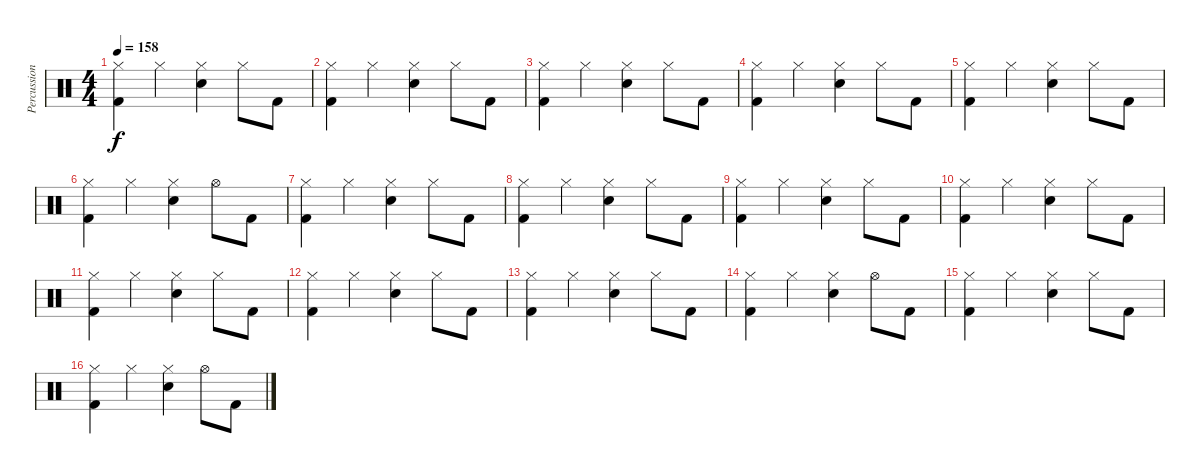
\track ("Percussions" "Percussion") {instrument percussion}
\staff {score}
\articulation defaults
\ts (4 4)
\tempo 158
\clef neutral
\ks c
("Hi-Hat (closed)" "Kick (hit) 2").4{dy f} "Hi-Hat (closed)".4 ("Hi-Hat (closed)" "Snare (hit) 2").4 "Hi-Hat (closed)".8 "Kick (hit) 2".8 |
("Hi-Hat (closed)" "Kick (hit) 2").4 "Hi-Hat (closed)".4 ("Hi-Hat (closed)" "Snare (hit) 2").4 "Hi-Hat (closed)".8 "Kick (hit) 2".8 |
("Hi-Hat (closed)" "Kick (hit) 2").4 "Hi-Hat (closed)".4 ("Hi-Hat (closed)" "Snare (hit) 2").4 "Hi-Hat (closed)".8 "Kick (hit) 2".8 |
("Hi-Hat (closed)" "Kick (hit) 2").4 "Hi-Hat (closed)".4 ("Hi-Hat (closed)" "Snare (hit) 2").4 "Hi-Hat (closed)".8 "Kick (hit) 2".8 |
("Hi-Hat (closed)" "Kick (hit) 2").4 "Hi-Hat (closed)".4 ("Hi-Hat (closed)" "Snare (hit) 2").4 "Hi-Hat (closed)".8 "Kick (hit) 2".8 |
("Hi-Hat (closed)" "Kick (hit) 2").4 "Hi-Hat (closed)".4 ("Hi-Hat (closed)" "Snare (hit) 2").4 "Hi-Hat (open)".8 "Kick (hit) 2".8 |
("Hi-Hat (closed)" "Kick (hit) 2").4 "Hi-Hat (closed)".4 ("Hi-Hat (closed)" "Snare (hit) 2").4 "Hi-Hat (closed)".8 "Kick (hit) 2".8 |
("Hi-Hat (closed)" "Kick (hit) 2").4 "Hi-Hat (closed)".4 ("Hi-Hat (closed)" "Snare (hit) 2").4 "Hi-Hat (closed)".8 "Kick (hit) 2".8 |
("Hi-Hat (closed)" "Kick (hit) 2").4 "Hi-Hat (closed)".4 ("Hi-Hat (closed)" "Snare (hit) 2").4 "Hi-Hat (closed)".8 "Kick (hit) 2".8 |
("Hi-Hat (closed)" "Kick (hit) 2").4 "Hi-Hat (closed)".4 ("Hi-Hat (closed)" "Snare (hit) 2").4 "Hi-Hat (closed)".8 "Kick (hit) 2".8 |
("Hi-Hat (closed)" "Kick (hit) 2").4 "Hi-Hat (closed)".4 ("Hi-Hat (closed)" "Snare (hit) 2").4 "Hi-Hat (closed)".8 "Kick (hit) 2".8 |
("Hi-Hat (closed)" "Kick (hit) 2").4 "Hi-Hat (closed)".4 ("Hi-Hat (closed)" "Snare (hit) 2").4 "Hi-Hat (closed)".8 "Kick (hit) 2".8 |
("Hi-Hat (closed)" "Kick (hit) 2").4 "Hi-Hat (closed)".4 ("Hi-Hat (closed)" "Snare (hit) 2").4 "Hi-Hat (closed)".8 "Kick (hit) 2".8 |
("Hi-Hat (closed)" "Kick (hit) 2").4 "Hi-Hat (closed)".4 ("Hi-Hat (closed)" "Snare (hit) 2").4 "Hi-Hat (open)".8 "Kick (hit) 2".8 |
("Hi-Hat (closed)" "Kick (hit) 2").4 "Hi-Hat (closed)".4 ("Hi-Hat (closed)" "Snare (hit) 2").4 "Hi-Hat (closed)".8 "Kick (hit) 2".8 |
("Hi-Hat (closed)" "Kick (hit) 2").4 "Hi-Hat (closed)".4 ("Hi-Hat (closed)" "Snare (hit) 2").4 "Hi-Hat (open)".8 "Kick (hit) 2".8
